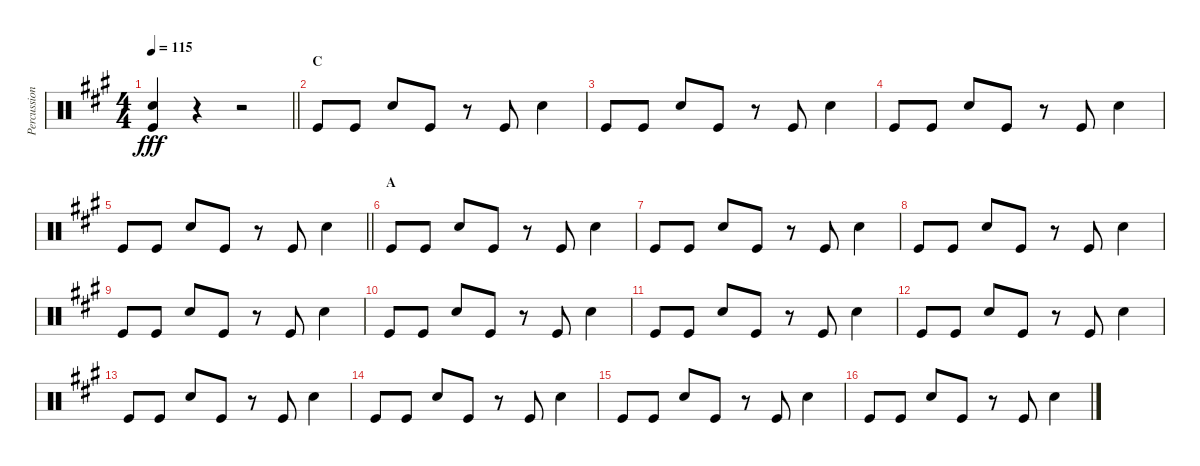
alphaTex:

\track ("Percussioni" "Percussion") {instrument percussion}
\staff {score}
\articulation defaults
\ts (4 4)
\tempo 115
\clef neutral
\barLineRight lightlight
\ks a
("Snare (hit) 2" "Kick (hit)").4{dy fff} r.4 r.2 |
\section ("" "C")
"Kick (hit)".8 "Kick (hit)".8 "Snare (hit) 2".8 "Kick (hit)".8 r.8 "Kick (hit)".8 "Snare (hit) 2".4 |
"Kick (hit)".8 "Kick (hit)".8 "Snare (hit) 2".8 "Kick (hit)".8 r.8 "Kick (hit)".8 "Snare (hit) 2".4 |
"Kick (hit)".8 "Kick (hit)".8 "Snare (hit) 2".8 "Kick (hit)".8 r.8 "Kick (hit)".8 "Snare (hit) 2".4 |
\barLineRight lightlight "Kick (hit)".8 "Kick (hit)".8 "Snare (hit) 2".8 "Kick (hit)".8
r.8 "Kick (hit)".8 "Snare (hit) 2".4 |
\section ("" "A")
"Kick (hit)".8 "Kick (hit)".8 "Snare (hit) 2".8 "Kick (hit)".8 r.8 "Kick (hit)".8 "Snare (hit) 2".4 |
"Kick (hit)".8 "Kick (hit)".8 "Snare (hit) 2".8 "Kick (hit)".8 r.8 "Kick (hit)".8 "Snare (hit) 2".4 |
"Kick (hit)".8 "Kick (hit)".8 "Snare (hit) 2".8 "Kick (hit)".8 r.8 "Kick (hit)".8 "Snare (hit) 2".4 |
"Kick (hit)".8 "Kick (hit)".8 "Snare (hit) 2".8 "Kick (hit)".8 r.8 "Kick (hit)".8 "Snare (hit) 2".4 |
"Kick (hit)".8 "Kick (hit)".8 "Snare (hit) 2".8 "Kick (hit)".8 r.8 "Kick (hit)".8 "Snare (hit) 2".4 |
"Kick (hit)".8 "Kick (hit)".8 "Snare (hit) 2".8 "Kick (hit)".8 r.8 "Kick (hit)".8 "Snare (hit) 2".4 |
"Kick (hit)".8 "Kick (hit)".8 "Snare (hit) 2".8 "Kick (hit)".8 r.8 "Kick (hit)".8 "Snare (hit) 2".4 |
"Kick (hit)".8 "Kick (hit)".8 "Snare (hit) 2".8 "Kick (hit)".8 r.8 "Kick (hit)".8 "Snare (hit) 2".4 |
"Kick (hit)".8 "Kick (hit)".8 "Snare (hit) 2".8 "Kick (hit)".8 r.8 "Kick (hit)".8 "Snare (hit) 2".4 |
"Kick (hit)".8 "Kick (hit)".8 "Snare (hit) 2".8 "Kick (hit)".8 r.8 "Kick (hit)".8 "Snare (hit) 2".4 |
"Kick (hit)".8 "Kick (hit)".8 "Snare (hit) 2".8 "Kick (hit)".8 r.8 "Kick (hit)".8 "Snare (hit) 2".4
